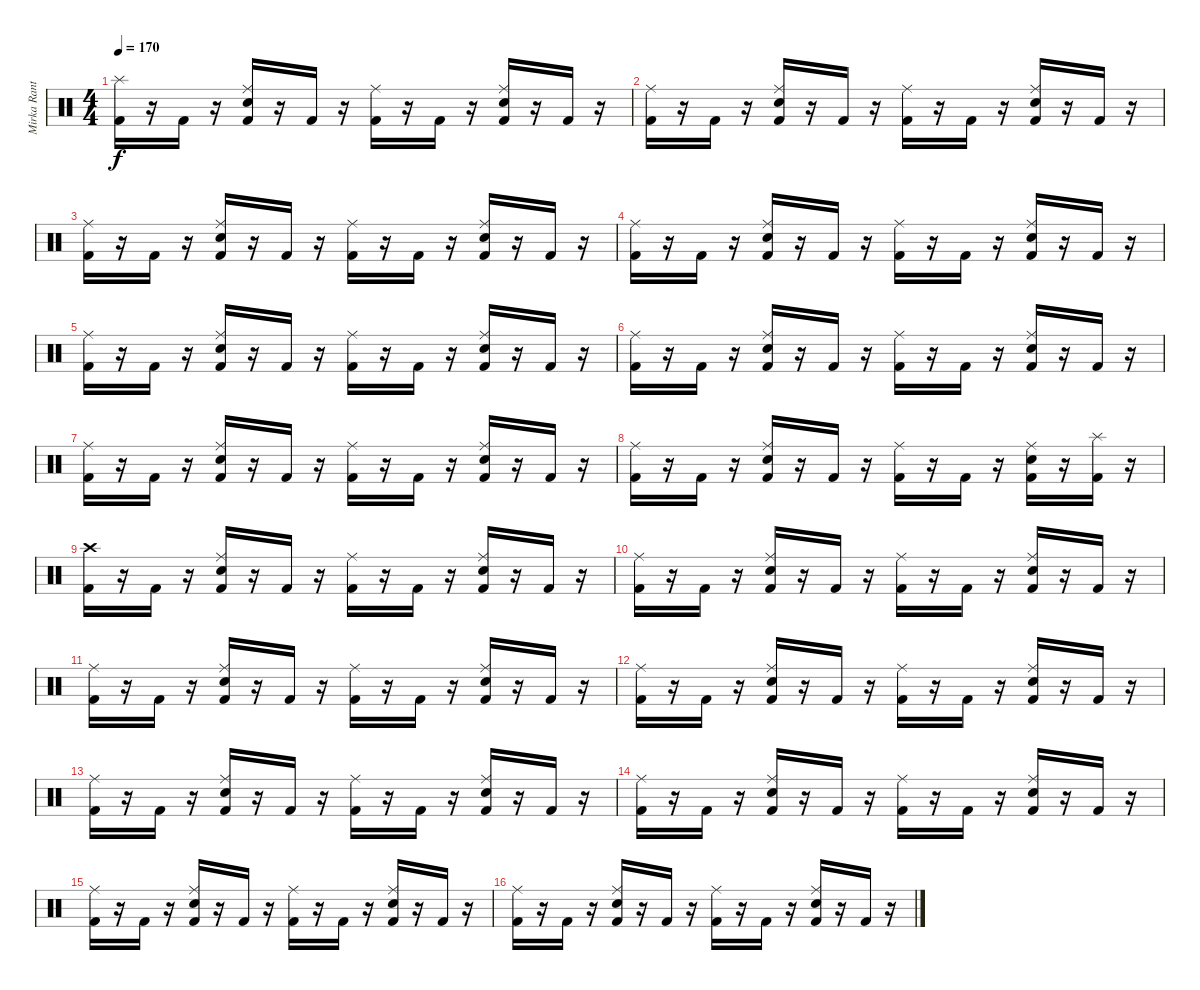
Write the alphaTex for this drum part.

\track ("Mirka Rantanen" "Mirka Rant") {instrument percussion}
\staff {score}
\articulation defaults
\ts (4 4)
\tempo 170
\clef neutral
\ks c
("Splash (hit)" "Kick (hit) 2").16{dy f} r.16 "Kick (hit) 2".16 r.16 ("Ride (middle)" "Snare (hit) 2" "Kick (hit) 2").16 r.16 "Kick (hit) 2".16 r.16 ("Ride (middle)" "Kick (hit) 2").16 r.16 "Kick (hit) 2".16 r.16 ("Ride (middle)" "Snare (hit) 2" "Kick (hit) 2").16 r.16 "Kick (hit) 2".16 r.16 |
("Ride (middle)" "Kick (hit) 2").16 r.16 "Kick (hit) 2".16 r.16 ("Ride (middle)" "Snare (hit) 2" "Kick (hit) 2").16 r.16 "Kick (hit) 2".16 r.16 ("Ride (middle)" "Kick (hit) 2").16 r.16 "Kick (hit) 2".16 r.16 ("Ride (middle)" "Snare (hit) 2" "Kick (hit) 2").16 r.16 "Kick (hit) 2".16 r.16 |
("Ride (middle)" "Kick (hit) 2").16 r.16 "Kick (hit) 2".16 r.16 ("Ride (middle)" "Snare (hit) 2" "Kick (hit) 2").16 r.16 "Kick (hit) 2".16 r.16 ("Ride (middle)" "Kick (hit) 2").16 r.16 "Kick (hit) 2".16 r.16 ("Ride (middle)" "Snare (hit) 2" "Kick (hit) 2").16 r.16 "Kick (hit) 2".16 r.16 |
("Ride (middle)" "Kick (hit) 2").16 r.16 "Kick (hit) 2".16 r.16 ("Ride (middle)" "Snare (hit) 2" "Kick (hit) 2").16 r.16 "Kick (hit) 2".16 r.16 ("Ride (middle)" "Kick (hit) 2").16 r.16 "Kick (hit) 2".16 r.16 ("Ride (middle)" "Snare (hit) 2" "Kick (hit) 2").16 r.16 "Kick (hit) 2".16 r.16 |
("Ride (middle)" "Kick (hit) 2").16 r.16 "Kick (hit) 2".16 r.16 ("Ride (middle)" "Snare (hit) 2" "Kick (hit) 2").16 r.16 "Kick (hit) 2".16 r.16 ("Ride (middle)" "Kick (hit) 2").16 r.16 "Kick (hit) 2".16 r.16 ("Ride (middle)" "Snare (hit) 2" "Kick (hit) 2").16 r.16 "Kick (hit) 2".16 r.16 |
("Ride (middle)" "Kick (hit) 2").16 r.16 "Kick (hit) 2".16 r.16 ("Ride (middle)" "Snare (hit) 2" "Kick (hit) 2").16 r.16 "Kick (hit) 2".16 r.16 ("Ride (middle)" "Kick (hit) 2").16 r.16 "Kick (hit) 2".16 r.16 ("Ride (middle)" "Snare (hit) 2" "Kick (hit) 2").16 r.16 "Kick (hit) 2".16 r.16 |
("Ride (middle)" "Kick (hit) 2").16 r.16 "Kick (hit) 2".16 r.16 ("Ride (middle)" "Snare (hit) 2" "Kick (hit) 2").16 r.16 "Kick (hit) 2".16 r.16 ("Ride (middle)" "Kick (hit) 2").16 r.16 "Kick (hit) 2".16 r.16 ("Ride (middle)" "Snare (hit) 2" "Kick (hit) 2").16 r.16 "Kick (hit) 2".16 r.16 |
("Ride (middle)" "Kick (hit) 2").16 r.16 "Kick (hit) 2".16 r.16 ("Ride (middle)" "Snare (hit) 2" "Kick (hit) 2").16 r.16 "Kick (hit) 2".16 r.16 ("Ride (middle)" "Kick (hit) 2").16 r.16 "Kick (hit) 2".16 r.16 ("Ride (middle)" "Snare (hit) 2" "Kick (hit) 2").16 r.16 ("Splash (hit)" "Kick (hit) 2").16 r.16 |
("Crash high (hit)" "Kick (hit) 2").16 r.16 "Kick (hit) 2".16 r.16 ("Ride (middle)" "Snare (hit) 2" "Kick (hit) 2").16 r.16 "Kick (hit) 2".16 r.16 ("Ride (middle)" "Kick (hit) 2").16 r.16 "Kick (hit) 2".16 r.16 ("Ride (middle)" "Snare (hit) 2" "Kick (hit) 2").16 r.16 "Kick (hit) 2".16 r.16 |
("Ride (middle)" "Kick (hit) 2").16 r.16 "Kick (hit) 2".16 r.16 ("Ride (middle)" "Snare (hit) 2" "Kick (hit) 2").16 r.16 "Kick (hit) 2".16 r.16 ("Ride (middle)" "Kick (hit) 2").16 r.16 "Kick (hit) 2".16 r.16 ("Ride (middle)" "Snare (hit) 2" "Kick (hit) 2").16 r.16 "Kick (hit) 2".16 r.16 |
("Ride (middle)" "Kick (hit) 2").16 r.16 "Kick (hit) 2".16 r.16 ("Ride (middle)" "Snare (hit) 2" "Kick (hit) 2").16 r.16 "Kick (hit) 2".16 r.16 ("Ride (middle)" "Kick (hit) 2").16 r.16 "Kick (hit) 2".16 r.16 ("Ride (middle)" "Snare (hit) 2" "Kick (hit) 2").16 r.16 "Kick (hit) 2".16 r.16 |
("Ride (middle)" "Kick (hit) 2").16 r.16 "Kick (hit) 2".16 r.16 ("Ride (middle)" "Snare (hit) 2" "Kick (hit) 2").16 r.16 "Kick (hit) 2".16 r.16 ("Ride (middle)" "Kick (hit) 2").16 r.16 "Kick (hit) 2".16 r.16 ("Ride (middle)" "Snare (hit) 2" "Kick (hit) 2").16 r.16 "Kick (hit) 2".16 r.16 |
("Ride (middle)" "Kick (hit) 2").16 r.16 "Kick (hit) 2".16 r.16 ("Ride (middle)" "Snare (hit) 2" "Kick (hit) 2").16 r.16 "Kick (hit) 2".16 r.16 ("Ride (middle)" "Kick (hit) 2").16 r.16 "Kick (hit) 2".16 r.16 ("Ride (middle)" "Snare (hit) 2" "Kick (hit) 2").16 r.16 "Kick (hit) 2".16 r.16 |
("Ride (middle)" "Kick (hit) 2").16 r.16 "Kick (hit) 2".16 r.16 ("Ride (middle)" "Snare (hit) 2" "Kick (hit) 2").16 r.16 "Kick (hit) 2".16 r.16 ("Ride (middle)" "Kick (hit) 2").16 r.16 "Kick (hit) 2".16 r.16 ("Ride (middle)" "Snare (hit) 2" "Kick (hit) 2").16 r.16 "Kick (hit) 2".16 r.16 |
("Ride (middle)" "Kick (hit) 2").16 r.16 "Kick (hit) 2".16 r.16 ("Ride (middle)" "Snare (hit) 2" "Kick (hit) 2").16 r.16 "Kick (hit) 2".16 r.16 ("Ride (middle)" "Kick (hit) 2").16 r.16 "Kick (hit) 2".16 r.16 ("Ride (middle)" "Snare (hit) 2" "Kick (hit) 2").16 r.16 "Kick (hit) 2".16 r.16 |
("Ride (middle)" "Kick (hit) 2").16 r.16 "Kick (hit) 2".16 r.16 ("Ride (middle)" "Snare (hit) 2" "Kick (hit) 2").16 r.16 "Kick (hit) 2".16 r.16 ("Ride (middle)" "Kick (hit) 2").16 r.16 "Kick (hit) 2".16 r.16 ("Ride (middle)" "Snare (hit) 2" "Kick (hit) 2").16 r.16 "Kick (hit) 2".16 r.16
